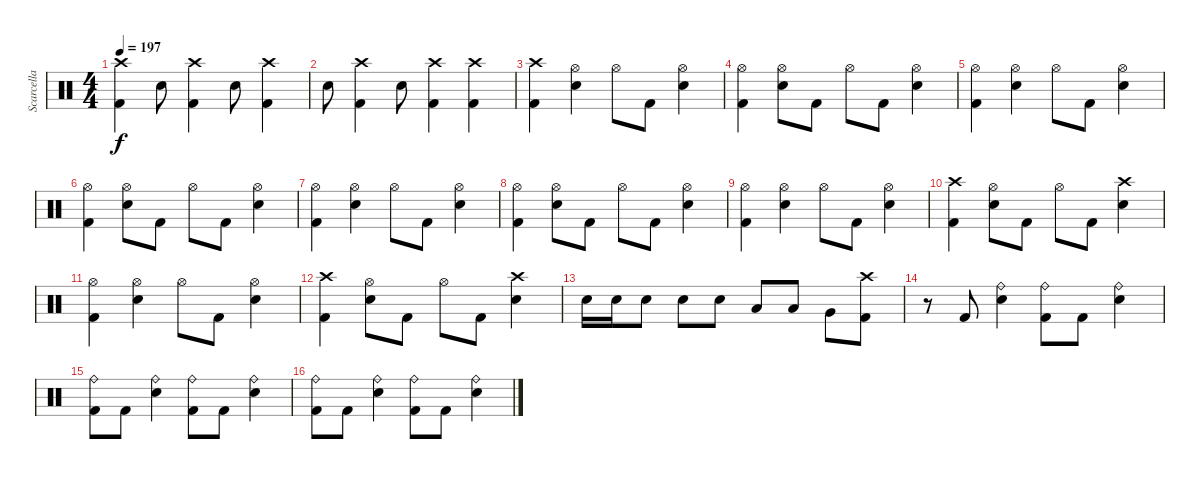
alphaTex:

\track ("Scarcella" "Scarcella") {instrument percussion}
\staff {score}
\articulation defaults
\ts (4 4)
\tempo 197
\clef neutral
\ks c
("Crash high (hit)" "Kick (hit) 2").4{dy f} "Electric Snare (hit)".8 ("Crash high (hit)" "Kick (hit) 2").4 "Electric Snare (hit)".8 ("Crash high (hit)" "Kick (hit) 2").4 |
"Electric Snare (hit)".8 ("Crash high (hit)" "Kick (hit) 2").4 "Electric Snare (hit)".8 ("Crash high (hit)" "Kick (hit) 2").4 ("Crash high (hit)" "Kick (hit) 2").4 |
("Crash high (hit)" "Kick (hit) 2").4 ("Hi-Hat (open)" "Electric Snare (hit)").4 "Hi-Hat (open)".8 "Kick (hit) 2".8 ("Hi-Hat (open)" "Electric Snare (hit)").4 |
("Hi-Hat (open)" "Kick (hit) 2").4 ("Hi-Hat (open)" "Electric Snare (hit)").8 "Kick (hit) 2".8 "Hi-Hat (open)".8 "Kick (hit) 2".8 ("Hi-Hat (open)" "Electric Snare (hit)").4 |
("Hi-Hat (open)" "Kick (hit) 2").4 ("Hi-Hat (open)" "Electric Snare (hit)").4 "Hi-Hat (open)".8 "Kick (hit) 2".8 ("Hi-Hat (open)" "Electric Snare (hit)").4 |
("Hi-Hat (open)" "Kick (hit) 2").4 ("Hi-Hat (open)" "Electric Snare (hit)").8 "Kick (hit) 2".8 "Hi-Hat (open)".8 "Kick (hit) 2".8 ("Hi-Hat (open)" "Electric Snare (hit)").4 |
("Hi-Hat (open)" "Kick (hit) 2").4 ("Hi-Hat (open)" "Electric Snare (hit)").4 "Hi-Hat (open)".8 "Kick (hit) 2".8 ("Hi-Hat (open)" "Electric Snare (hit)").4 |
("Hi-Hat (open)" "Kick (hit) 2").4 ("Hi-Hat (open)" "Electric Snare (hit)").8 "Kick (hit) 2".8 "Hi-Hat (open)".8 "Kick (hit) 2".8 ("Hi-Hat (open)" "Electric Snare (hit)").4 |
("Hi-Hat (open)" "Kick (hit) 2").4 ("Hi-Hat (open)" "Electric Snare (hit)").4 "Hi-Hat (open)".8 "Kick (hit) 2".8 ("Hi-Hat (open)" "Electric Snare (hit)").4 |
("Crash high (hit)" "Kick (hit) 2").4 ("Hi-Hat (open)" "Electric Snare (hit)").8 "Kick (hit) 2".8 "Hi-Hat (open)".8 "Kick (hit) 2".8 ("Crash high (hit)" "Electric Snare (hit)").4 |
("Hi-Hat (open)" "Kick (hit) 2").4 ("Hi-Hat (open)" "Electric Snare (hit)").4 "Hi-Hat (open)".8 "Kick (hit) 2".8 ("Hi-Hat (open)" "Electric Snare (hit)").4 |
("Crash high (hit)" "Kick (hit) 2").4 ("Hi-Hat (open)" "Electric Snare (hit)").8 "Kick (hit) 2".8 "Hi-Hat (open)".8 "Kick (hit) 2".8 ("Crash high (hit)" "Electric Snare (hit)").4 |
"Electric Snare (hit)".16 "Electric Snare (hit)".16 "Electric Snare (hit)".8 "Electric Snare (hit)".8 "Electric Snare (hit)".8 "Low Tom (hit)".8 "Low Tom (hit)".8 "Very Low Tom (hit)".8 ("Crash high (hit)" "Kick (hit) 2").8 |
r.8 "Kick (hit) 2".8 ("Ride (bell)" "Electric Snare (hit)").4 ("Ride (bell)" "Kick (hit) 2").8 "Kick (hit) 2".8 ("Ride (bell)" "Electric Snare (hit)").4 |
("Ride (bell)" "Kick (hit) 2").8 "Kick (hit) 2".8 ("Ride (bell)" "Electric Snare (hit)").4 ("Ride (bell)" "Kick (hit) 2").8 "Kick (hit) 2".8 ("Ride (bell)" "Electric Snare (hit)").4 |
("Ride (bell)" "Kick (hit) 2").8 "Kick (hit) 2".8 ("Ride (bell)" "Electric Snare (hit)").4 ("Ride (bell)" "Kick (hit) 2").8 "Kick (hit) 2".8 ("Ride (bell)" "Electric Snare (hit)").4
